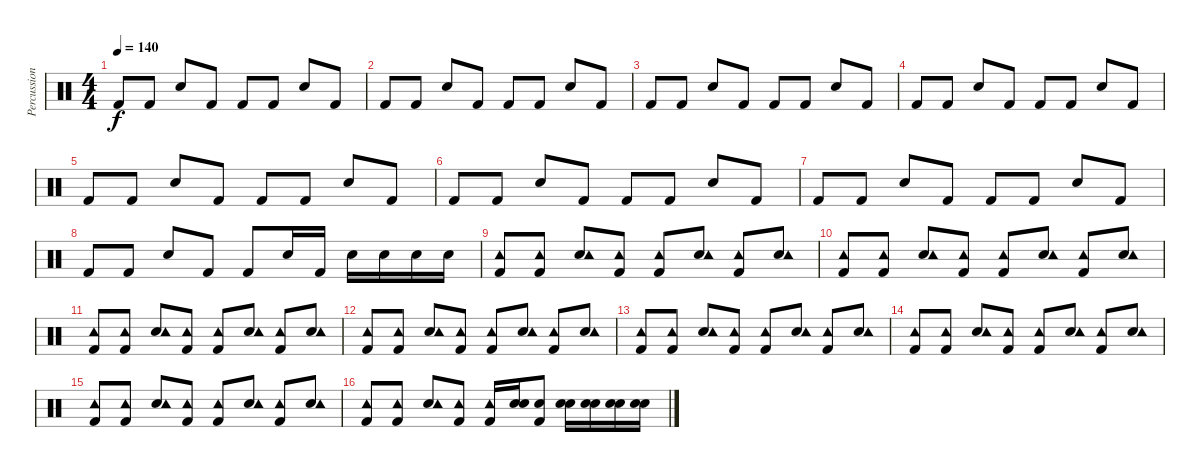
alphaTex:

\track ("Percussion" "Percussion") {instrument percussion}
\staff {score}
\articulation defaults
\ts (4 4)
\tempo 140
\clef neutral
\ks c "Kick (hit) 2".8{dy f} "Kick (hit) 2".8 "Snare (hit) 2".8 "Kick (hit) 2".8 "Kick (hit) 2".8 "Kick (hit) 2".8 "Snare (hit) 2".8 "Kick (hit) 2".8
|
"Kick (hit) 2".8 "Kick (hit) 2".8 "Snare (hit) 2".8 "Kick (hit) 2".8 "Kick (hit) 2".8 "Kick (hit) 2".8 "Snare (hit) 2".8 "Kick (hit) 2".8 |
"Kick (hit) 2".8 "Kick (hit) 2".8 "Snare (hit) 2".8 "Kick (hit) 2".8 "Kick (hit) 2".8 "Kick (hit) 2".8 "Snare (hit) 2".8 "Kick (hit) 2".8 |
"Kick (hit) 2".8 "Kick (hit) 2".8 "Snare (hit) 2".8 "Kick (hit) 2".8 "Kick (hit) 2".8 "Kick (hit) 2".8 "Snare (hit) 2".8 "Kick (hit) 2".8 |
"Kick (hit) 2".8 "Kick (hit) 2".8 "Snare (hit) 2".8 "Kick (hit) 2".8 "Kick (hit) 2".8 "Kick (hit) 2".8 "Snare (hit) 2".8 "Kick (hit) 2".8 |
"Kick (hit) 2".8 "Kick (hit) 2".8 "Snare (hit) 2".8 "Kick (hit) 2".8 "Kick (hit) 2".8 "Kick (hit) 2".8 "Snare (hit) 2".8 "Kick (hit) 2".8 |
"Kick (hit) 2".8 "Kick (hit) 2".8 "Snare (hit) 2".8 "Kick (hit) 2".8 "Kick (hit) 2".8 "Kick (hit) 2".8 "Snare (hit) 2".8 "Kick (hit) 2".8 |
"Kick (hit) 2".8 "Kick (hit) 2".8 "Snare (hit) 2".8 "Kick (hit) 2".8 "Kick (hit) 2".8 "Snare (hit) 2".16 "Kick (hit) 2".16 "Snare (hit) 2".16 "Snare (hit) 2".16 "Snare (hit) 2".16 "Snare (hit) 2".16 |
("Kick (hit) 2" "Tambourine (hit)").8 ("Kick (hit) 2" "Tambourine (hit)").8 ("Snare (hit) 2" "Tambourine (hit)").8 ("Kick (hit) 2" "Tambourine (hit)").8 ("Kick (hit) 2" "Tambourine (hit)").8 ("Snare (hit) 2" "Tambourine (hit)").8 ("Kick (hit) 2" "Tambourine (hit)").8 ("Snare (hit) 2" "Tambourine (hit)").8 |
("Kick (hit) 2" "Tambourine (hit)").8 ("Kick (hit) 2" "Tambourine (hit)").8 ("Snare (hit) 2" "Tambourine (hit)").8 ("Kick (hit) 2" "Tambourine (hit)").8 ("Kick (hit) 2" "Tambourine (hit)").8 ("Snare (hit) 2" "Tambourine (hit)").8 ("Kick (hit) 2" "Tambourine (hit)").8 ("Snare (hit) 2" "Tambourine (hit)").8 |
("Kick (hit) 2" "Tambourine (hit)").8 ("Kick (hit) 2" "Tambourine (hit)").8 ("Snare (hit) 2" "Tambourine (hit)").8 ("Kick (hit) 2" "Tambourine (hit)").8 ("Kick (hit) 2" "Tambourine (hit)").8 ("Snare (hit) 2" "Tambourine (hit)").8 ("Kick (hit) 2" "Tambourine (hit)").8 ("Snare (hit) 2" "Tambourine (hit)").8 |
("Kick (hit) 2" "Tambourine (hit)").8 ("Kick (hit) 2" "Tambourine (hit)").8 ("Snare (hit) 2" "Tambourine (hit)").8 ("Kick (hit) 2" "Tambourine (hit)").8 ("Kick (hit) 2" "Tambourine (hit)").8 ("Snare (hit) 2" "Tambourine (hit)").8 ("Kick (hit) 2" "Tambourine (hit)").8 ("Snare (hit) 2" "Tambourine (hit)").8 |
("Kick (hit) 2" "Tambourine (hit)").8 ("Kick (hit) 2" "Tambourine (hit)").8 ("Snare (hit) 2" "Tambourine (hit)").8 ("Kick (hit) 2" "Tambourine (hit)").8 ("Kick (hit) 2" "Tambourine (hit)").8 ("Snare (hit) 2" "Tambourine (hit)").8 ("Kick (hit) 2" "Tambourine (hit)").8 ("Snare (hit) 2" "Tambourine (hit)").8 |
("Kick (hit) 2" "Tambourine (hit)").8 ("Kick (hit) 2" "Tambourine (hit)").8 ("Snare (hit) 2" "Tambourine (hit)").8 ("Kick (hit) 2" "Tambourine (hit)").8 ("Kick (hit) 2" "Tambourine (hit)").8 ("Snare (hit) 2" "Tambourine (hit)").8 ("Kick (hit) 2" "Tambourine (hit)").8 ("Snare (hit) 2" "Tambourine (hit)").8 |
("Kick (hit) 2" "Tambourine (hit)").8 ("Kick (hit) 2" "Tambourine (hit)").8 ("Snare (hit) 2" "Tambourine (hit)").8 ("Kick (hit) 2" "Tambourine (hit)").8 ("Kick (hit) 2" "Tambourine (hit)").8 ("Snare (hit) 2" "Tambourine (hit)").8 ("Kick (hit) 2" "Tambourine (hit)").8 ("Snare (hit) 2" "Tambourine (hit)").8 |
("Kick (hit) 2" "Tambourine (hit)").8 ("Kick (hit) 2" "Tambourine (hit)").8 ("Snare (hit) 2" "Tambourine (hit)").8 ("Kick (hit) 2" "Tambourine (hit)").8 ("Kick (hit) 2" "Tambourine (hit)").16 ("Electric Snare (hit)" "Snare (hit) 2").16 ("Electric Snare (hit)" "Kick (hit) 2").8 ("Electric Snare (hit)" "Snare (hit) 2").16 ("Electric Snare (hit)" "Snare (hit) 2").16 ("Electric Snare (hit)" "Snare (hit) 2").16 ("Electric Snare (hit)" "Snare (hit) 2").16
